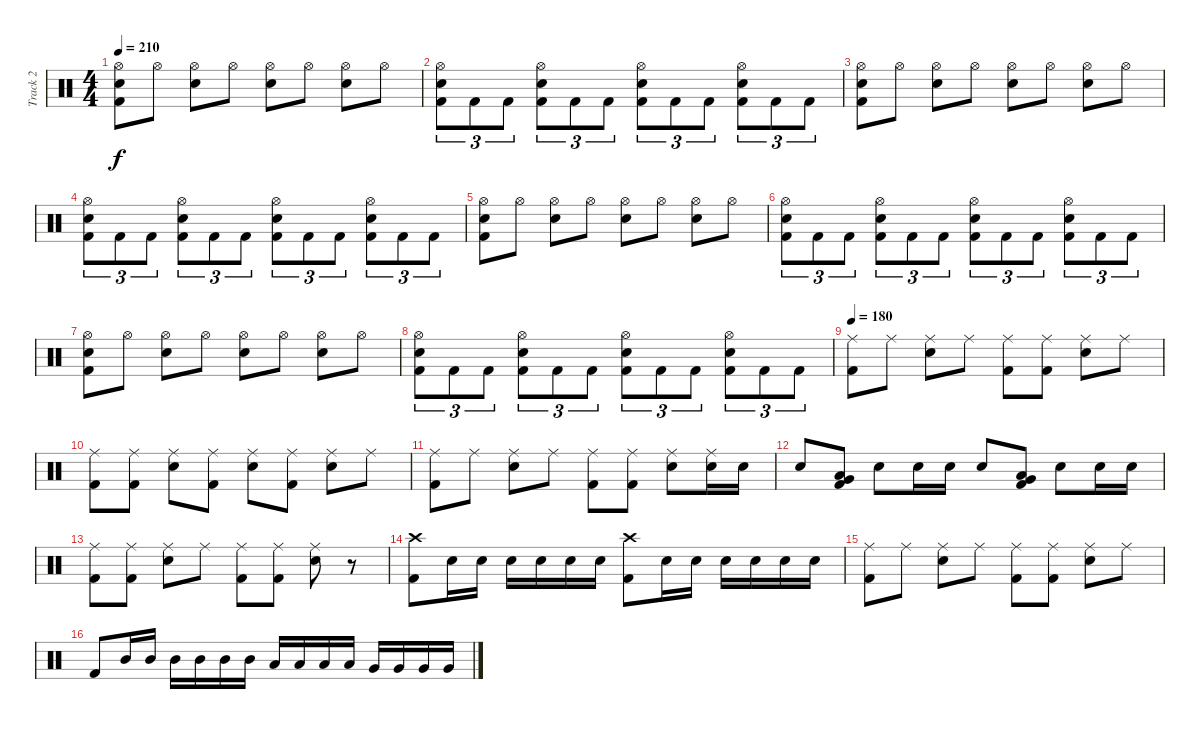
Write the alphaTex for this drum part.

\track ("Track 2" "Track 2") {instrument percussion}
\staff {score}
\articulation defaults
\ts (4 4)
\tempo 210
\clef neutral
\ks c
("Hi-Hat (open)" "Snare (hit) 2" "Kick (hit) 2").8{dy f} "Hi-Hat (open)".8 ("Hi-Hat (open)" "Snare (hit) 2").8 "Hi-Hat (open)".8 ("Hi-Hat (open)" "Snare (hit) 2").8 "Hi-Hat (open)".8 ("Hi-Hat (open)" "Snare (hit) 2").8 "Hi-Hat (open)".8 |
("Hi-Hat (open)" "Snare (hit) 2" "Kick (hit) 2").8{tu (3 2)} "Kick (hit) 2".8{tu (3 2)} "Kick (hit) 2".8{tu (3 2)} ("Hi-Hat (open)" "Snare (hit) 2" "Kick (hit) 2").8{tu (3 2)} "Kick (hit) 2".8{tu (3 2)} "Kick (hit) 2".8{tu (3 2)} ("Hi-Hat (open)" "Snare (hit) 2" "Kick (hit) 2").8{tu (3 2)} "Kick (hit) 2".8{tu (3 2)} "Kick (hit) 2".8{tu (3 2)} ("Hi-Hat (open)" "Snare (hit) 2" "Kick (hit) 2").8{tu (3 2)} "Kick (hit) 2".8{tu (3 2)} "Kick (hit) 2".8{tu (3 2)} |
("Hi-Hat (open)" "Snare (hit) 2" "Kick (hit) 2").8 "Hi-Hat (open)".8 ("Hi-Hat (open)" "Snare (hit) 2").8 "Hi-Hat (open)".8 ("Hi-Hat (open)" "Snare (hit) 2").8 "Hi-Hat (open)".8 ("Hi-Hat (open)" "Snare (hit) 2").8 "Hi-Hat (open)".8 |
("Hi-Hat (open)" "Snare (hit) 2" "Kick (hit) 2").8{tu (3 2)} "Kick (hit) 2".8{tu (3 2)} "Kick (hit) 2".8{tu (3 2)} ("Hi-Hat (open)" "Snare (hit) 2" "Kick (hit) 2").8{tu (3 2)} "Kick (hit) 2".8{tu (3 2)} "Kick (hit) 2".8{tu (3 2)} ("Hi-Hat (open)" "Snare (hit) 2" "Kick (hit) 2").8{tu (3 2)} "Kick (hit) 2".8{tu (3 2)} "Kick (hit) 2".8{tu (3 2)} ("Hi-Hat (open)" "Snare (hit) 2" "Kick (hit) 2").8{tu (3 2)} "Kick (hit) 2".8{tu (3 2)} "Kick (hit) 2".8{tu (3 2)} |
("Hi-Hat (open)" "Snare (hit) 2" "Kick (hit) 2").8 "Hi-Hat (open)".8 ("Hi-Hat (open)" "Snare (hit) 2").8 "Hi-Hat (open)".8 ("Hi-Hat (open)" "Snare (hit) 2").8 "Hi-Hat (open)".8 ("Hi-Hat (open)" "Snare (hit) 2").8 "Hi-Hat (open)".8 |
("Hi-Hat (open)" "Snare (hit) 2" "Kick (hit) 2").8{tu (3 2)} "Kick (hit) 2".8{tu (3 2)} "Kick (hit) 2".8{tu (3 2)} ("Hi-Hat (open)" "Snare (hit) 2" "Kick (hit) 2").8{tu (3 2)} "Kick (hit) 2".8{tu (3 2)} "Kick (hit) 2".8{tu (3 2)} ("Hi-Hat (open)" "Snare (hit) 2" "Kick (hit) 2").8{tu (3 2)} "Kick (hit) 2".8{tu (3 2)} "Kick (hit) 2".8{tu (3 2)} ("Hi-Hat (open)" "Snare (hit) 2" "Kick (hit) 2").8{tu (3 2)} "Kick (hit) 2".8{tu (3 2)} "Kick (hit) 2".8{tu (3 2)} |
("Hi-Hat (open)" "Snare (hit) 2" "Kick (hit) 2").8 "Hi-Hat (open)".8 ("Hi-Hat (open)" "Snare (hit) 2").8 "Hi-Hat (open)".8 ("Hi-Hat (open)" "Snare (hit) 2").8 "Hi-Hat (open)".8 ("Hi-Hat (open)" "Snare (hit) 2").8 "Hi-Hat (open)".8 |
("Hi-Hat (open)" "Snare (hit) 2" "Kick (hit) 2").8{tu (3 2)} "Kick (hit) 2".8{tu (3 2)} "Kick (hit) 2".8{tu (3 2)} ("Hi-Hat (open)" "Snare (hit) 2" "Kick (hit) 2").8{tu (3 2)} "Kick (hit) 2".8{tu (3 2)} "Kick (hit) 2".8{tu (3 2)} ("Hi-Hat (open)" "Snare (hit) 2" "Kick (hit) 2").8{tu (3 2)} "Kick (hit) 2".8{tu (3 2)} "Kick (hit) 2".8{tu (3 2)} ("Hi-Hat (open)" "Snare (hit) 2" "Kick (hit) 2").8{tu (3 2)} "Kick (hit) 2".8{tu (3 2)} "Kick (hit) 2".8{tu (3 2)} |
\tempo 180
("Ride (middle)" "Kick (hit) 2").8 "Ride (middle)".8 ("Ride (middle)" "Snare (hit) 2").8 "Ride (middle)".8 ("Ride (middle)" "Kick (hit) 2").8 ("Ride (middle)" "Kick (hit) 2").8 ("Ride (middle)" "Snare (hit) 2").8 "Ride (middle)".8 |
("Ride (middle)" "Kick (hit) 2").8 ("Ride (middle)" "Kick (hit) 2").8 ("Ride (middle)" "Snare (hit) 2").8 ("Ride (middle)" "Kick (hit) 2").8 ("Ride (middle)" "Snare (hit) 2").8 ("Ride (middle)" "Kick (hit) 2").8 ("Ride (middle)" "Snare (hit) 2").8 "Ride (middle)".8 |
("Ride (middle)" "Kick (hit) 2").8 "Ride (middle)".8 ("Ride (middle)" "Snare (hit) 2").8 "Ride (middle)".8 ("Ride (middle)" "Kick (hit) 2").8 ("Ride (middle)" "Kick (hit) 2").8 ("Ride (middle)" "Snare (hit) 2").8 ("Ride (middle)" "Snare (hit) 2").16 "Snare (hit) 2".16 |
"Snare (hit) 2".8 ("Low Tom (hit)" "Very Low Tom (hit)" "Kick (hit) 2").8 "Snare (hit) 2".8 "Snare (hit) 2".16 "Snare (hit) 2".16 "Snare (hit) 2".8 ("Low Tom (hit)" "Very Low Tom (hit)" "Kick (hit) 2").8 "Snare (hit) 2".8 "Snare (hit) 2".16 "Snare (hit) 2".16 |
("Ride (middle)" "Kick (hit) 2").8 ("Ride (middle)" "Kick (hit) 2").8 ("Ride (middle)" "Snare (hit) 2").8 "Ride (middle)".8 ("Ride (middle)" "Kick (hit) 2").8 ("Ride (middle)" "Kick (hit) 2").8 ("Ride (middle)" "Snare (hit) 2").8 r.8 |
("Crash high (hit)" "Kick (hit) 2").8 "Snare (hit) 2".16 "Snare (hit) 2".16 "Snare (hit) 2".16 "Snare (hit) 2".16 "Snare (hit) 2".16 "Snare (hit) 2".16 ("Crash high (hit)" "Kick (hit) 2").8 "Snare (hit) 2".16 "Snare (hit) 2".16 "Snare (hit) 2".16 "Snare (hit) 2".16 "Snare (hit) 2".16 "Snare (hit) 2".16 |
("Ride (middle)" "Kick (hit) 2").8 "Ride (middle)".8 ("Ride (middle)" "Snare (hit) 2").8 "Ride (middle)".8 ("Ride (middle)" "Kick (hit) 2").8 ("Ride (middle)" "Kick (hit) 2").8 ("Ride (middle)" "Snare (hit) 2").8 "Ride (middle)".8 |
"Kick (hit) 2".8 "Mid Tom (hit)".16 "Mid Tom (hit)".16 "Mid Tom (hit)".16 "Mid Tom (hit)".16 "Mid Tom (hit)".16 "Mid Tom (hit)".16 "Low Tom (hit)".16 "Low Tom (hit)".16 "Low Tom (hit)".16 "Low Tom (hit)".16 "Very Low Tom (hit)".16 "Very Low Tom (hit)".16 "Very Low Tom (hit)".16 "Very Low Tom (hit)".16
